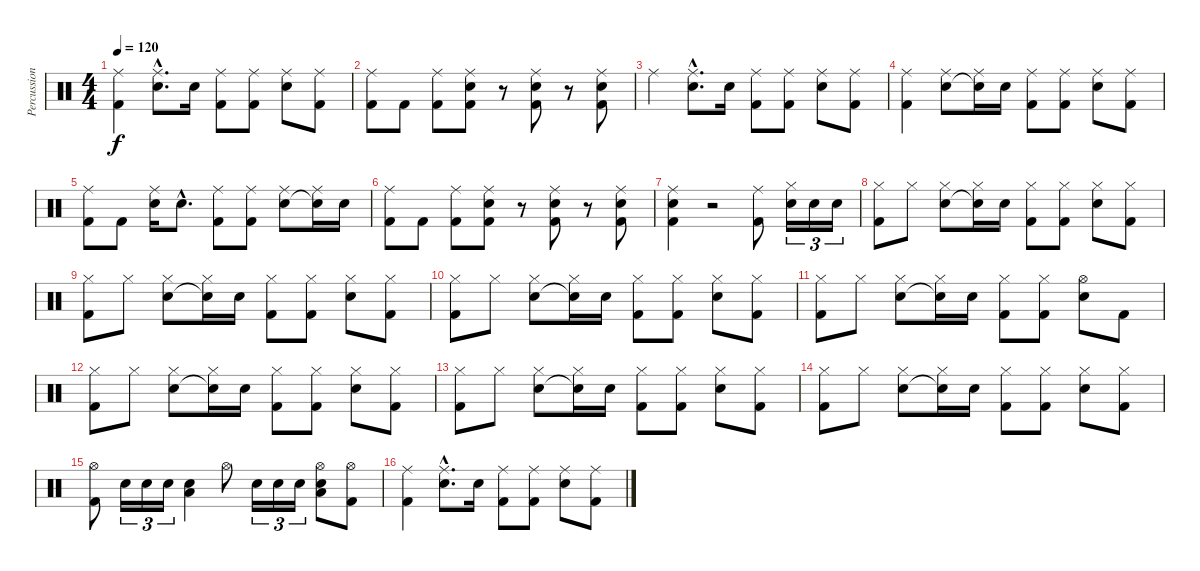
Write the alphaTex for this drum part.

\track ("Percussions" "Percussion") {instrument percussion}
\staff {score}
\articulation defaults
\ts (4 4)
\tempo 120
\clef neutral
\ks c
("Ride (middle)" "Kick (hit) 2").4{dy f} ("Ride (middle)"{hac} "Snare (hit) 2"{hac}).8{d} "Snare (hit) 2".16 ("Ride (middle)" "Kick (hit) 2").8 ("Ride (middle)" "Kick (hit) 2").8 ("Ride (middle)" "Snare (hit) 2").8 ("Ride (middle)" "Kick (hit) 2").8 |
("Ride (middle)" "Kick (hit) 2").8 "Kick (hit) 2".8 ("Ride (middle)" "Kick (hit) 2").8 ("Ride (middle)" "Snare (hit) 2" "Kick (hit) 2").8 r.8 ("Ride (middle)" "Snare (hit) 2" "Kick (hit) 2").8 r.8 ("Ride (middle)" "Snare (hit) 2" "Kick (hit) 2").8 |
"Ride (middle)".4 ("Ride (middle)"{hac} "Snare (hit) 2"{hac}).8{d} "Snare (hit) 2".16 ("Ride (middle)" "Kick (hit) 2").8 ("Ride (middle)" "Kick (hit) 2").8 ("Ride (middle)" "Snare (hit) 2").8 ("Ride (middle)" "Kick (hit) 2").8 |
("Ride (middle)" "Kick (hit) 2").4 ("Ride (middle)" "Snare (hit) 2").8 ("Ride (middle)" "Snare (hit)"{t}).16 "Snare (hit) 2".16 ("Ride (middle)" "Kick (hit) 2").8 ("Ride (middle)" "Kick (hit) 2").8 ("Ride (middle)" "Snare (hit) 2").8 ("Ride (middle)" "Kick (hit) 2").8 |
("Ride (middle)" "Kick (hit) 2").8 "Kick (hit) 2".8 ("Ride (middle)" "Snare (hit) 2").16 "Snare (hit) 2"{hac}.8{d} ("Ride (middle)" "Kick (hit) 2").8 ("Ride (middle)" "Kick (hit) 2").8 ("Ride (middle)" "Snare (hit) 2").8 ("Ride (middle)" "Snare (hit) 2"{t}).16 "Snare (hit) 2".16 |
("Ride (middle)" "Kick (hit) 2").8 "Kick (hit) 2".8 ("Ride (middle)" "Kick (hit) 2").8 ("Ride (middle)" "Snare (hit) 2" "Kick (hit) 2").8 r.8 ("Ride (middle)" "Snare (hit) 2" "Kick (hit) 2").8 r.8 ("Ride (middle)" "Snare (hit) 2" "Kick (hit) 2").8 |
("Ride (middle)" "Snare (hit) 2" "Kick (hit) 2").4 r.2 ("Ride (middle)" "Kick (hit) 2").8 ("Hi-Hat (closed)" "Snare (hit) 2").16{tu (3 2)} "Snare (hit) 2".16{tu (3 2)} "Snare (hit) 2".16{tu (3 2)} |
("Hi-Hat (closed)" "Kick (hit) 2").8 "Hi-Hat (closed)".8 ("Hi-Hat (closed)" "Snare (hit) 2").8 ("Hi-Hat (closed)" "Snare (hit)"{t}).16 "Snare (hit) 2".16 ("Hi-Hat (closed)" "Kick (hit) 2").8 ("Hi-Hat (closed)" "Kick (hit) 2").8 ("Hi-Hat (closed)" "Snare (hit) 2").8 ("Hi-Hat (closed)" "Kick (hit) 2").8 |
("Hi-Hat (closed)" "Kick (hit) 2").8 "Hi-Hat (closed)".8 ("Hi-Hat (closed)" "Snare (hit) 2").8 ("Hi-Hat (closed)" "Snare (hit)"{t}).16 "Snare (hit) 2".16 ("Hi-Hat (closed)" "Kick (hit) 2").8 ("Hi-Hat (closed)" "Kick (hit) 2").8 ("Hi-Hat (closed)" "Snare (hit) 2").8 ("Hi-Hat (closed)" "Kick (hit) 2").8 |
("Hi-Hat (closed)" "Kick (hit) 2").8 "Hi-Hat (closed)".8 ("Hi-Hat (closed)" "Snare (hit) 2").8 ("Hi-Hat (closed)" "Snare (hit)"{t}).16 "Snare (hit) 2".16 ("Hi-Hat (closed)" "Kick (hit) 2").8 ("Hi-Hat (closed)" "Kick (hit) 2").8 ("Hi-Hat (closed)" "Snare (hit) 2").8 ("Hi-Hat (closed)" "Kick (hit) 2").8 |
("Hi-Hat (closed)" "Kick (hit) 2").8 "Hi-Hat (closed)".8 ("Hi-Hat (closed)" "Snare (hit) 2").8 ("Hi-Hat (closed)" "Snare (hit)"{t}).16 "Snare (hit) 2".16 ("Hi-Hat (closed)" "Kick (hit) 2").8 ("Hi-Hat (closed)" "Kick (hit) 2").8 ("Hi-Hat (open)" "Snare (hit) 2").8 "Kick (hit) 2".8 |
("Hi-Hat (closed)" "Kick (hit) 2").8 "Hi-Hat (closed)".8 ("Hi-Hat (closed)" "Snare (hit) 2").8 ("Hi-Hat (closed)" "Snare (hit)"{t}).16 "Snare (hit) 2".16 ("Hi-Hat (closed)" "Kick (hit) 2").8 ("Hi-Hat (closed)" "Kick (hit) 2").8 ("Hi-Hat (closed)" "Snare (hit) 2").8 ("Hi-Hat (closed)" "Kick (hit) 2").8 |
("Hi-Hat (closed)" "Kick (hit) 2").8 "Hi-Hat (closed)".8 ("Hi-Hat (closed)" "Snare (hit) 2").8 ("Hi-Hat (closed)" "Snare (hit)"{t}).16 "Snare (hit) 2".16 ("Hi-Hat (closed)" "Kick (hit) 2").8 ("Hi-Hat (closed)" "Kick (hit) 2").8 ("Hi-Hat (closed)" "Snare (hit) 2").8 ("Hi-Hat (closed)" "Kick (hit) 2").8 |
("Hi-Hat (closed)" "Kick (hit) 2").8 "Hi-Hat (closed)".8 ("Hi-Hat (closed)" "Snare (hit) 2").8 ("Hi-Hat (closed)" "Snare (hit)"{t}).16 "Snare (hit) 2".16 ("Hi-Hat (closed)" "Kick (hit) 2").8 ("Hi-Hat (closed)" "Kick (hit) 2").8 ("Hi-Hat (closed)" "Snare (hit) 2").8 ("Hi-Hat (closed)" "Kick (hit) 2").8 |
("Hi-Hat (open)" "Kick (hit) 2").8 "Snare (hit) 2".16{tu (3 2)} "Snare (hit) 2".16{tu (3 2)} "Snare (hit) 2".16{tu (3 2)} ("Snare (hit) 2" "Low Floor Tom (hit)").4 "Hi-Hat (open)".8 "Snare (hit) 2".16{tu (3 2)} "Snare (hit) 2".16{tu (3 2)} "Snare (hit) 2".16{tu (3 2)} ("Hi-Hat (open)" "Snare (hit) 2" "Low Floor Tom (hit)").8 ("Hi-Hat (open)" "Kick (hit) 2").8 |
("Ride (middle)" "Kick (hit) 2").4 ("Ride (middle)"{hac} "Snare (hit) 2"{hac}).8{d} "Snare (hit) 2".16 ("Ride (middle)" "Kick (hit) 2").8 ("Ride (middle)" "Kick (hit) 2").8 ("Ride (middle)" "Snare (hit) 2").8 ("Ride (middle)" "Kick (hit) 2").8
